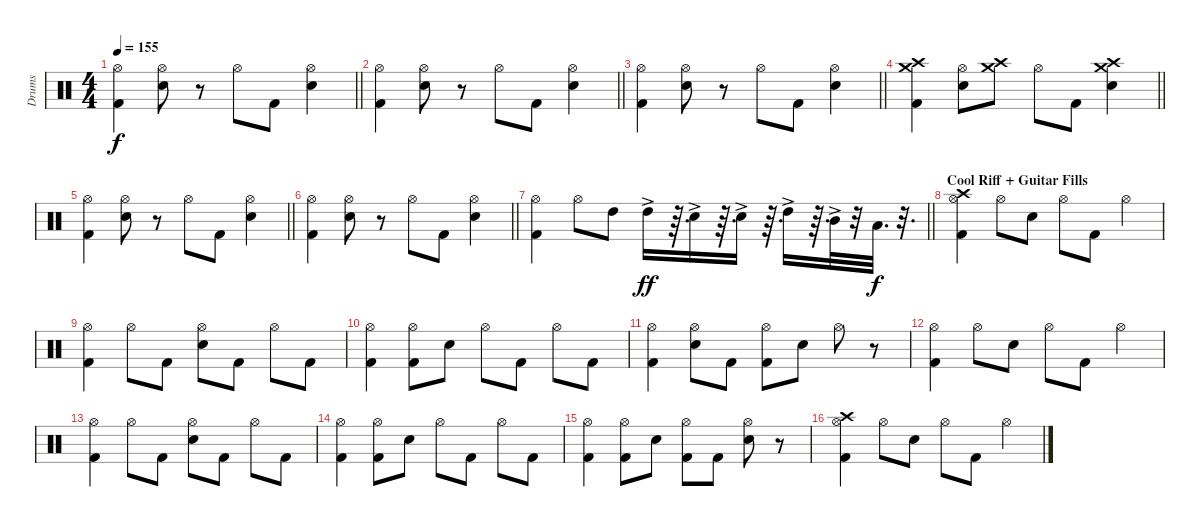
\track ("Drums" "Drums") {instrument percussion}
\staff {score}
\articulation defaults
\ts (4 4)
\tempo 155
\clef neutral
\barLineRight lightlight
\ks c
("Hi-Hat (open)" "Kick (hit) 2").4{dy f} ("Hi-Hat (open)" "Electric Snare (hit)").8 r.8 "Hi-Hat (open)".8 "Kick (hit) 2".8 ("Hi-Hat (open)" "Electric Snare (hit)").4 |
\barLineRight lightlight
("Hi-Hat (open)" "Kick (hit) 2").4 ("Hi-Hat (open)" "Electric Snare (hit)").8 r.8 "Hi-Hat (open)".8 "Kick (hit) 2".8 ("Hi-Hat (open)" "Electric Snare (hit)").4 |
\barLineRight lightlight
("Hi-Hat (open)" "Kick (hit) 2").4 ("Hi-Hat (open)" "Electric Snare (hit)").8 r.8 "Hi-Hat (open)".8 "Kick (hit) 2".8 ("Hi-Hat (open)" "Electric Snare (hit)").4 |
\barLineRight lightlight
("Crash high (hit)" "Crash medium (hit)" "Kick (hit) 2").4 ("Hi-Hat (open)" "Electric Snare (hit)").8 ("Crash high (hit)" "Crash medium (hit)").8 "Hi-Hat (open)".8 "Kick (hit) 2".8 ("Crash high (hit)" "Crash medium (hit)" "Electric Snare (hit)").4 |
\barLineRight lightlight
("Hi-Hat (open)" "Kick (hit) 2").4 ("Hi-Hat (open)" "Electric Snare (hit)").8 r.8 "Hi-Hat (open)".8 "Kick (hit) 2".8 ("Hi-Hat (open)" "Electric Snare (hit)").4 |
\barLineRight lightlight
("Hi-Hat (open)" "Kick (hit) 2").4 ("Hi-Hat (open)" "Electric Snare (hit)").8 r.8 "Hi-Hat (open)".8 "Kick (hit) 2".8 ("Hi-Hat (open)" "Electric Snare (hit)").4 |
\barLineRight lightlight
("Hi-Hat (open)" "Kick (hit) 2").4 "Hi-Hat (open)".8 "High Tom (hit)".8 "High Tom (hit)"{ac}.16{dy ff} r.64{d} "Electric Snare (hit)"{ac}.16 r.64{d} "Electric Snare (hit)"{ac}.16 r.64{d} "High Tom (hit)"{ac}.16 r.64{d} "Mid Tom (hit)"{ac}.32 r.32 "Low Tom (hit)".32{d dy f} r.32{d} |
\section ("" "Cool Riff + Guitar Fills")
("Hi-Hat (open)" "Crash high (hit)" "Kick (hit) 2").4 "Hi-Hat (open)".8 "Electric Snare (hit)".8 "Hi-Hat (open)".8 "Kick (hit) 2".8 "Hi-Hat (open)".4 |
("Hi-Hat (open)" "Kick (hit) 2").4 "Hi-Hat (open)".8 "Kick (hit) 2".8 ("Hi-Hat (open)" "Electric Snare (hit)").8 "Kick (hit) 2".8 "Hi-Hat (open)".8 "Kick (hit) 2".8 |
("Hi-Hat (open)" "Kick (hit) 2").4 ("Hi-Hat (open)" "Kick (hit) 2").8 "Electric Snare (hit)".8 "Hi-Hat (open)".8 "Kick (hit) 2".8 "Hi-Hat (open)".8 "Kick (hit) 2".8 |
("Hi-Hat (open)" "Kick (hit) 2").4 ("Hi-Hat (open)" "Electric Snare (hit)").8 "Kick (hit) 2".8 ("Hi-Hat (open)" "Kick (hit) 2").8 "Electric Snare (hit)".8 "Hi-Hat (open)".8 r.8 |
("Hi-Hat (open)" "Kick (hit) 2").4 "Hi-Hat (open)".8 "Electric Snare (hit)".8 "Hi-Hat (open)".8 "Kick (hit) 2".8 "Hi-Hat (open)".4 |
("Hi-Hat (open)" "Kick (hit) 2").4 "Hi-Hat (open)".8 "Kick (hit) 2".8 ("Hi-Hat (open)" "Electric Snare (hit)").8 "Kick (hit) 2".8 "Hi-Hat (open)".8 "Kick (hit) 2".8 |
("Hi-Hat (open)" "Kick (hit) 2").4 ("Hi-Hat (open)" "Kick (hit) 2").8 "Electric Snare (hit)".8 "Hi-Hat (open)".8 "Kick (hit) 2".8 "Hi-Hat (open)".8 "Kick (hit) 2".8 |
("Hi-Hat (open)" "Kick (hit) 2").4 ("Hi-Hat (open)" "Kick (hit) 2").8 "Electric Snare (hit)".8 ("Hi-Hat (open)" "Kick (hit) 2").8 "Kick (hit) 2".8 ("Hi-Hat (open)" "Electric Snare (hit)").8 r.8 |
("Hi-Hat (open)" "Crash high (hit)" "Kick (hit) 2").4 "Hi-Hat (open)".8 "Electric Snare (hit)".8 "Hi-Hat (open)".8 "Kick (hit) 2".8 "Hi-Hat (open)".4
